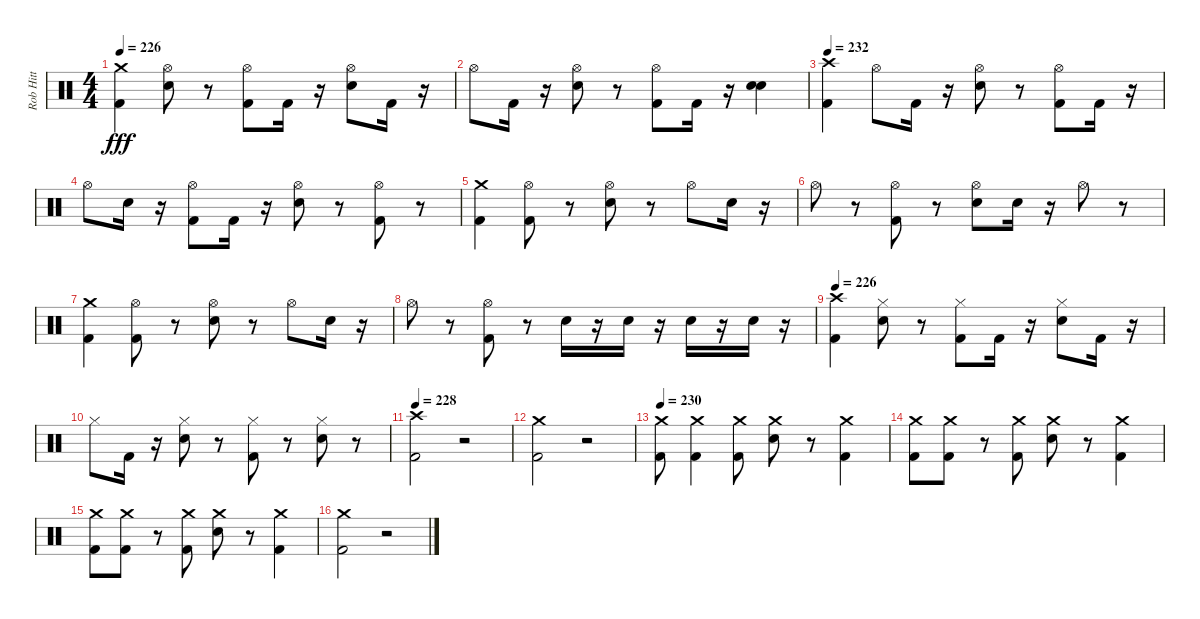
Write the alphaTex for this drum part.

\track ("Rob Hitt" "Rob Hitt") {instrument percussion}
\staff {score}
\articulation defaults
\ts (4 4)
\tempo 226
\clef neutral
\ks c
("Kick (hit) 2" "Crash medium (hit)").4{dy fff} ("Electric Snare (hit)" "Hi-Hat (open)").8 r.8 ("Kick (hit) 2" "Hi-Hat (open)").8 "Kick (hit) 2".16 r.16 ("Electric Snare (hit)" "Hi-Hat (open)").8 "Kick (hit) 2".16 r.16 |
"Hi-Hat (open)".8 "Kick (hit) 2".16 r.16 ("Electric Snare (hit)" "Hi-Hat (open)").8 r.8 ("Kick (hit) 2" "Hi-Hat (open)").8 "Kick (hit) 2".16 r.16 ("Electric Snare (hit)" "Electric Snare (hit)").4 |
\tempo 232
("Kick (hit) 2" "Crash high (hit)").4 "Hi-Hat (open)".8 "Kick (hit) 2".16 r.16 ("Electric Snare (hit)" "Hi-Hat (open)").8 r.8 ("Kick (hit) 2" "Hi-Hat (open)").8 "Kick (hit) 2".16 r.16 |
"Hi-Hat (open)".8 "Electric Snare (hit)".16 r.16 ("Kick (hit) 2" "Hi-Hat (open)").8 "Kick (hit) 2".16 r.16 ("Electric Snare (hit)" "Hi-Hat (open)").8 r.8 ("Kick (hit) 2" "Hi-Hat (open)").8 r.8 |
("Kick (hit) 2" "Crash medium (hit)").4 ("Kick (hit) 2" "Hi-Hat (open)").8 r.8 ("Electric Snare (hit)" "Hi-Hat (open)").8 r.8 "Hi-Hat (open)".8 "Electric Snare (hit)".16 r.16 |
"Hi-Hat (open)".8 r.8 ("Kick (hit) 2" "Hi-Hat (open)").8 r.8 ("Electric Snare (hit)" "Hi-Hat (open)").8 "Electric Snare (hit)".16 r.16 "Hi-Hat (open)".8 r.8 |
("Kick (hit) 2" "Crash medium (hit)").4 ("Kick (hit) 2" "Hi-Hat (open)").8 r.8 ("Electric Snare (hit)" "Hi-Hat (open)").8 r.8 "Hi-Hat (open)".8 "Electric Snare (hit)".16 r.16 |
"Hi-Hat (open)".8 r.8 ("Kick (hit) 2" "Hi-Hat (open)").8 r.8 "Electric Snare (hit)".16 r.16 "Electric Snare (hit)".16 r.16 "Electric Snare (hit)".16 r.16 "Electric Snare (hit)".16 r.16 |
\tempo 226
("Kick (hit) 2" "Crash high (hit)").4 ("Electric Snare (hit)" "Hi-Hat (closed)").8 r.8 ("Kick (hit) 2" "Hi-Hat (closed)").8 "Kick (hit) 2".16 r.16 ("Electric Snare (hit)" "Hi-Hat (closed)").8 "Kick (hit) 2".16 r.16 |
"Hi-Hat (closed)".8 "Kick (hit) 2".16 r.16 ("Electric Snare (hit)" "Hi-Hat (closed)").8 r.8 ("Kick (hit) 2" "Hi-Hat (closed)").8 r.8 ("Electric Snare (hit)" "Hi-Hat (closed)").8 r.8 |
\tempo 228
("Kick (hit) 2" "Crash high (hit)").2 r.2 |
("Kick (hit) 2" "Crash medium (hit)").2 r.2 |
\tempo 230
("Kick (hit) 2" "Crash medium (hit)").8 ("Kick (hit) 2" "Crash medium (hit)").4 ("Kick (hit) 2" "Crash medium (hit)").8 ("Electric Snare (hit)" "Crash medium (hit)").8 r.8 ("Kick (hit) 2" "Crash medium (hit)").4 |
("Kick (hit) 2" "Crash medium (hit)").8 ("Kick (hit) 2" "Crash medium (hit)").8 r.8 ("Kick (hit) 2" "Crash medium (hit)").8 ("Electric Snare (hit)" "Crash medium (hit)").8 r.8 ("Kick (hit) 2" "Crash medium (hit)").4 |
("Kick (hit) 2" "Crash medium (hit)").8 ("Kick (hit) 2" "Crash medium (hit)").8 r.8 ("Kick (hit) 2" "Crash medium (hit)").8 ("Electric Snare (hit)" "Crash medium (hit)").8 r.8 ("Kick (hit) 2" "Crash medium (hit)").4 |
("Kick (hit) 2" "Crash medium (hit)").2 r.2
